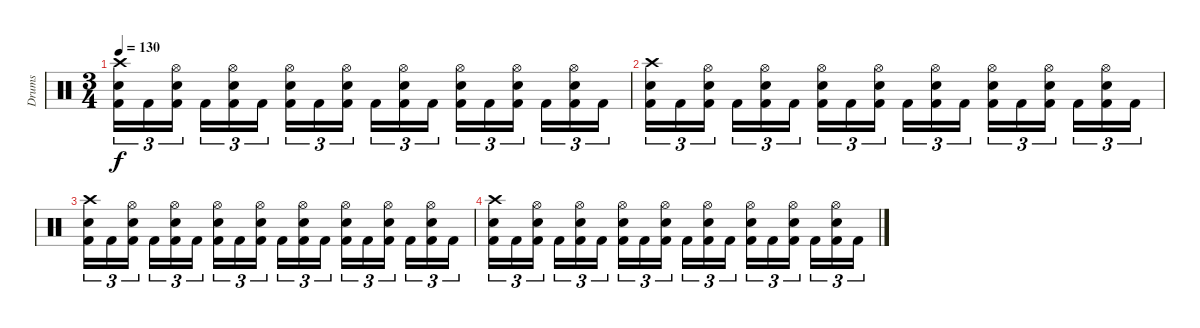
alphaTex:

\track ("Drums" "Drums") {instrument percussion}
\staff {score}
\articulation defaults
\ts (3 4)
\tempo 130
\clef neutral
\ks c
("Crash high (hit)" "Snare (hit) 2" "Kick (hit) 2").16{tu (3 2) dy f} "Kick (hit) 2".16{tu (3 2)} ("Hi-Hat (open)" "Snare (hit) 2" "Kick (hit) 2").16{tu (3 2) beam splitsecondary} "Kick (hit) 2".16{tu (3 2)} ("Hi-Hat (open)" "Snare (hit) 2" "Kick (hit) 2").16{tu (3 2)} "Kick (hit) 2".16{tu (3 2)} ("Hi-Hat (open)" "Snare (hit) 2" "Kick (hit) 2").16{tu (3 2)} "Kick (hit) 2".16{tu (3 2)} ("Hi-Hat (open)" "Snare (hit) 2" "Kick (hit) 2").16{tu (3 2) beam splitsecondary} "Kick (hit) 2".16{tu (3 2)} ("Hi-Hat (open)" "Snare (hit) 2" "Kick (hit) 2").16{tu (3 2)} "Kick (hit) 2".16{tu (3 2)} ("Hi-Hat (open)" "Snare (hit) 2" "Kick (hit) 2").16{tu (3 2)} "Kick (hit) 2".16{tu (3 2)} ("Hi-Hat (open)" "Snare (hit) 2" "Kick (hit) 2").16{tu (3 2) beam splitsecondary} "Kick (hit) 2".16{tu (3 2)} ("Hi-Hat (open)" "Snare (hit) 2" "Kick (hit) 2").16{tu (3 2)} "Kick (hit) 2".16{tu (3 2)} |
("Crash high (hit)" "Snare (hit) 2" "Kick (hit) 2").16{tu (3 2)} "Kick (hit) 2".16{tu (3 2)} ("Hi-Hat (open)" "Snare (hit) 2" "Kick (hit) 2").16{tu (3 2) beam splitsecondary} "Kick (hit) 2".16{tu (3 2)} ("Hi-Hat (open)" "Snare (hit) 2" "Kick (hit) 2").16{tu (3 2)} "Kick (hit) 2".16{tu (3 2)} ("Hi-Hat (open)" "Snare (hit) 2" "Kick (hit) 2").16{tu (3 2)} "Kick (hit) 2".16{tu (3 2)} ("Hi-Hat (open)" "Snare (hit) 2" "Kick (hit) 2").16{tu (3 2) beam splitsecondary} "Kick (hit) 2".16{tu (3 2)} ("Hi-Hat (open)" "Snare (hit) 2" "Kick (hit) 2").16{tu (3 2)} "Kick (hit) 2".16{tu (3 2)} ("Hi-Hat (open)" "Snare (hit) 2" "Kick (hit) 2").16{tu (3 2)} "Kick (hit) 2".16{tu (3 2)} ("Hi-Hat (open)" "Snare (hit) 2" "Kick (hit) 2").16{tu (3 2) beam splitsecondary} "Kick (hit) 2".16{tu (3 2)} ("Hi-Hat (open)" "Snare (hit) 2" "Kick (hit) 2").16{tu (3 2)} "Kick (hit) 2".16{tu (3 2)} |
("Crash high (hit)" "Snare (hit) 2" "Kick (hit) 2").16{tu (3 2)} "Kick (hit) 2".16{tu (3 2)} ("Hi-Hat (open)" "Snare (hit) 2" "Kick (hit) 2").16{tu (3 2) beam splitsecondary} "Kick (hit) 2".16{tu (3 2)} ("Hi-Hat (open)" "Snare (hit) 2" "Kick (hit) 2").16{tu (3 2)} "Kick (hit) 2".16{tu (3 2)} ("Hi-Hat (open)" "Snare (hit) 2" "Kick (hit) 2").16{tu (3 2)} "Kick (hit) 2".16{tu (3 2)} ("Hi-Hat (open)" "Snare (hit) 2" "Kick (hit) 2").16{tu (3 2) beam splitsecondary} "Kick (hit) 2".16{tu (3 2)} ("Hi-Hat (open)" "Snare (hit) 2" "Kick (hit) 2").16{tu (3 2)} "Kick (hit) 2".16{tu (3 2)} ("Hi-Hat (open)" "Snare (hit) 2" "Kick (hit) 2").16{tu (3 2)} "Kick (hit) 2".16{tu (3 2)} ("Hi-Hat (open)" "Snare (hit) 2" "Kick (hit) 2").16{tu (3 2) beam splitsecondary} "Kick (hit) 2".16{tu (3 2)} ("Hi-Hat (open)" "Snare (hit) 2" "Kick (hit) 2").16{tu (3 2)} "Kick (hit) 2".16{tu (3 2)} |
("Crash high (hit)" "Snare (hit) 2" "Kick (hit) 2").16{tu (3 2)} "Kick (hit) 2".16{tu (3 2)} ("Hi-Hat (open)" "Snare (hit) 2" "Kick (hit) 2").16{tu (3 2) beam splitsecondary} "Kick (hit) 2".16{tu (3 2)} ("Hi-Hat (open)" "Snare (hit) 2" "Kick (hit) 2").16{tu (3 2)} "Kick (hit) 2".16{tu (3 2)} ("Hi-Hat (open)" "Snare (hit) 2" "Kick (hit) 2").16{tu (3 2)} "Kick (hit) 2".16{tu (3 2)} ("Hi-Hat (open)" "Snare (hit) 2" "Kick (hit) 2").16{tu (3 2) beam splitsecondary} "Kick (hit) 2".16{tu (3 2)} ("Hi-Hat (open)" "Snare (hit) 2" "Kick (hit) 2").16{tu (3 2)} "Kick (hit) 2".16{tu (3 2)} ("Hi-Hat (open)" "Snare (hit) 2" "Kick (hit) 2").16{tu (3 2)} "Kick (hit) 2".16{tu (3 2)} ("Hi-Hat (open)" "Snare (hit) 2" "Kick (hit) 2").16{tu (3 2) beam splitsecondary} "Kick (hit) 2".16{tu (3 2)} ("Hi-Hat (open)" "Snare (hit) 2" "Kick (hit) 2").16{tu (3 2)} "Kick (hit) 2".16{tu (3 2)}
